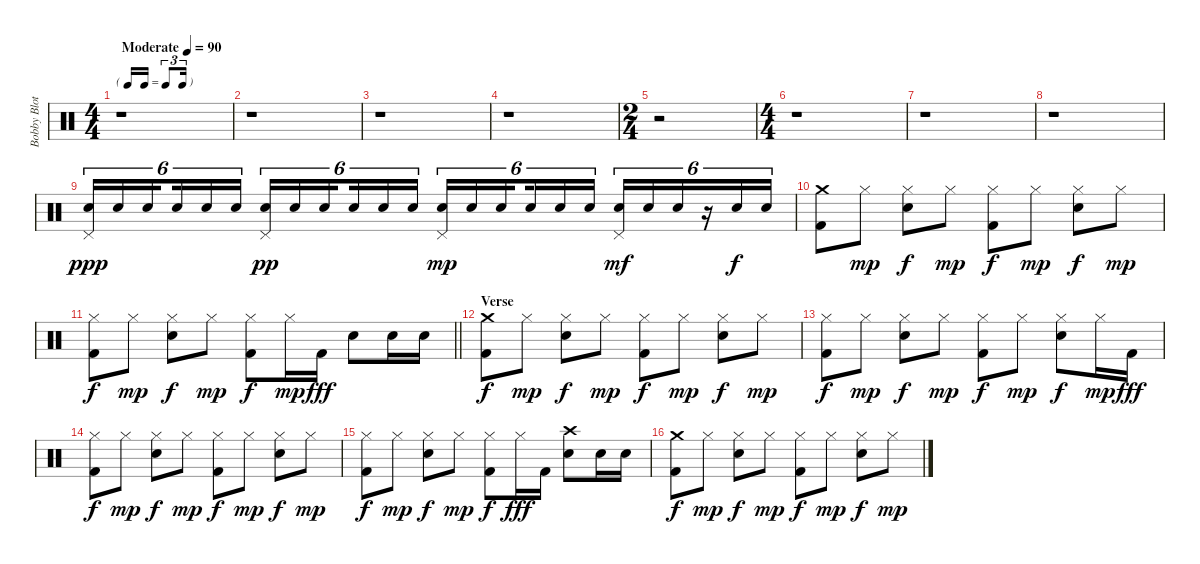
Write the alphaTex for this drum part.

\track ("Bobby Blotzer - Drums" "Bobby Blot") {instrument percussion}
\staff {score}
\articulation defaults
\ts (4 4)
\tf triplet16th
\tempo (90 "Moderate")
\clef neutral
\ks c
r.1{dy ppp} |
r.1 |
r.1 |
r.1 |
\ts (2 4)
r.2 |
\ts (4 4)
r.1 |
r.1 |
r.1 |
("Pedal Hi-Hat (hit)" "Snare (hit) 2").16{tu (6 4)} "Snare (hit) 2".16{tu (6 4)} "Snare (hit) 2".16{tu (6 4) beam splitsecondary} "Snare (hit) 2".16{tu (6 4)} "Snare (hit) 2".16{tu (6 4)} "Snare (hit) 2".16{tu (6 4)} ("Pedal Hi-Hat (hit)" "Snare (hit) 2").16{tu (6 4) dy pp} "Snare (hit) 2".16{tu (6 4)} "Snare (hit) 2".16{tu (6 4) beam splitsecondary} "Snare (hit) 2".16{tu (6 4)} "Snare (hit) 2".16{tu (6 4)} "Snare (hit) 2".16{tu (6 4)} ("Pedal Hi-Hat (hit)" "Snare (hit) 2").16{tu (6 4) dy mp} "Snare (hit) 2".16{tu (6 4)} "Snare (hit) 2".16{tu (6 4) beam splitsecondary} "Snare (hit) 2".16{tu (6 4)} "Snare (hit) 2".16{tu (6 4)} "Snare (hit) 2".16{tu (6 4)} ("Pedal Hi-Hat (hit)" "Snare (hit) 2").16{tu (6 4) dy mf} "Snare (hit) 2".16{tu (6 4)} "Snare (hit) 2".16{tu (6 4)} r.16{tu (6 4)} "Snare (hit) 2".16{tu (6 4) dy f} "Snare (hit) 2".16{tu (6 4)} |
("Crash medium (hit)" "Kick (hit) 2").8 "Hi-Hat (closed)".8{dy mp} ("Hi-Hat (closed)" "Snare (hit) 2").8{dy f} "Hi-Hat (closed)".8{dy mp} ("Hi-Hat (closed)" "Kick (hit) 2").8{dy f} "Hi-Hat (closed)".8{dy mp} ("Hi-Hat (closed)" "Snare (hit) 2").8{dy f} "Hi-Hat (closed)".8{dy mp} |
\barLineRight lightlight
("Hi-Hat (closed)" "Kick (hit) 2").8{dy f} "Hi-Hat (closed)".8{dy mp} ("Hi-Hat (closed)" "Snare (hit) 2").8{dy f} "Hi-Hat (closed)".8{dy mp} ("Hi-Hat (closed)" "Kick (hit) 2").8{dy f} "Hi-Hat (closed)".16{dy mp} "Kick (hit) 2".16{dy fff} "Snare (hit) 2".8 "Snare (hit) 2".16 "Snare (hit) 2".16 |
\section ("" "Verse")
("Crash medium (hit)" "Kick (hit) 2").8{dy f} "Hi-Hat (closed)".8{dy mp} ("Hi-Hat (closed)" "Snare (hit) 2").8{dy f} "Hi-Hat (closed)".8{dy mp} ("Hi-Hat (closed)" "Kick (hit) 2").8{dy f} "Hi-Hat (closed)".8{dy mp} ("Hi-Hat (closed)" "Snare (hit) 2").8{dy f} "Hi-Hat (closed)".8{dy mp} |
("Hi-Hat (closed)" "Kick (hit) 2").8{dy f} "Hi-Hat (closed)".8{dy mp} ("Hi-Hat (closed)" "Snare (hit) 2").8{dy f} "Hi-Hat (closed)".8{dy mp} ("Hi-Hat (closed)" "Kick (hit) 2").8{dy f} "Hi-Hat (closed)".8{dy mp} ("Hi-Hat (closed)" "Snare (hit) 2").8{dy f} "Hi-Hat (closed)".16{dy mp} "Kick (hit) 2".16{dy fff} |
("Hi-Hat (closed)" "Kick (hit) 2").8{dy f} "Hi-Hat (closed)".8{dy mp} ("Hi-Hat (closed)" "Snare (hit) 2").8{dy f} "Hi-Hat (closed)".8{dy mp} ("Hi-Hat (closed)" "Kick (hit) 2").8{dy f} "Hi-Hat (closed)".8{dy mp} ("Hi-Hat (closed)" "Snare (hit) 2").8{dy f} "Hi-Hat (closed)".8{dy mp} |
("Hi-Hat (closed)" "Kick (hit) 2").8{dy f} "Hi-Hat (closed)".8{dy mp} ("Hi-Hat (closed)" "Snare (hit) 2").8{dy f} "Hi-Hat (closed)".8{dy mp} ("Hi-Hat (closed)" "Kick (hit) 2").8{dy f} "Hi-Hat (closed)".16{dy fff} "Kick (hit) 2".16 ("Crash high (hit)" "Snare (hit) 2").8 "Snare (hit) 2".16 "Snare (hit) 2".16 |
("Crash medium (hit)" "Kick (hit) 2").8{dy f} "Hi-Hat (closed)".8{dy mp} ("Hi-Hat (closed)" "Snare (hit) 2").8{dy f} "Hi-Hat (closed)".8{dy mp} ("Hi-Hat (closed)" "Kick (hit) 2").8{dy f} "Hi-Hat (closed)".8{dy mp} ("Hi-Hat (closed)" "Snare (hit) 2").8{dy f} "Hi-Hat (closed)".8{dy mp}
